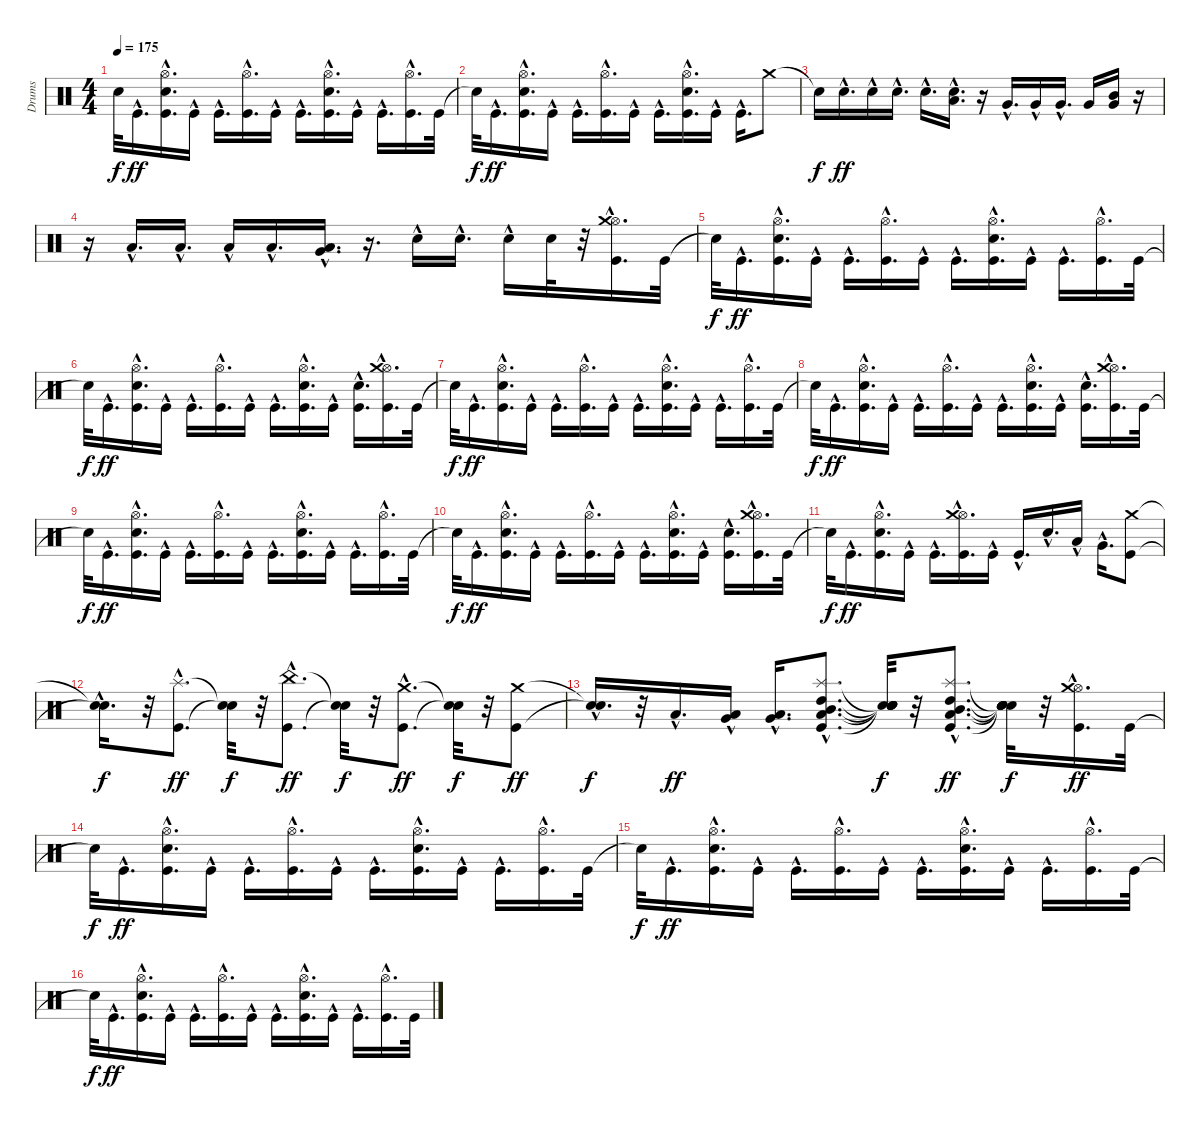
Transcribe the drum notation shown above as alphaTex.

\track ("Drums" "Drums") {instrument percussion}
\staff {score}
\articulation defaults
\ts (4 4)
\tempo 175
\clef neutral
\ks c "Snare (hit)"{t}.32{dy f} "Kick (hit)"{hac}.16{d dy ff}
("Kick (hit)"{hac} "Electric Snare (hit)"{hac} "Hi-Hat (open)"{hac}).16{d} "Kick (hit)"{hac}.16 "Kick (hit)"{hac}.16{d} ("Kick (hit)"{hac} "Hi-Hat (open)"{hac}).16{d} "Kick (hit)"{hac}.16 "Kick (hit)"{hac}.16{d} ("Kick (hit)"{hac} "Electric Snare (hit)"{hac} "Hi-Hat (open)"{hac}).16{d} "Kick (hit)"{hac}.16 "Kick (hit)"{hac}.16{d} ("Kick (hit)"{hac} "Hi-Hat (open)"{hac}).16{d} "Kick (hit)".32 |
"Snare (hit)"{t}.32{dy f} "Kick (hit)"{hac}.16{d dy ff} ("Kick (hit)"{hac} "Electric Snare (hit)"{hac} "Hi-Hat (open)"{hac}).16{d} "Kick (hit)"{hac}.16 "Kick (hit)"{hac}.16{d} ("Kick (hit)"{hac} "Hi-Hat (open)"{hac}).16{d} "Kick (hit)"{hac}.16 "Kick (hit)"{hac}.16{d} ("Kick (hit)"{hac} "Electric Snare (hit)"{hac} "Hi-Hat (open)"{hac}).16{d} "Kick (hit)"{hac}.16 "Kick (hit)"{hac}.16{d} "Crash medium (hit)".8 |
"Snare (hit)"{t}.16{dy f} "Electric Snare (hit)"{hac}.16{d dy ff} "Electric Snare (hit)"{hac}.16 "Electric Snare (hit)"{hac}.16{d} "Electric Snare (hit)"{hac}.16{d} ("Electric Snare (hit)"{hac} "Low Tom (hit)"{hac}).16{d} r.16 "Very Low Tom (hit)"{hac}.16{d} "Very Low Tom (hit)"{hac}.16 "Very Low Tom (hit)"{hac}.16{d} "Very Low Tom (hit)".16 ("Very Low Tom (hit)" "Mid Tom (hit)").16 r.16 |
r.16 "Low Floor Tom (hit)"{hac}.16{d} "Low Floor Tom (hit)"{hac}.16{d} "Low Floor Tom (hit)"{hac}.16 "Low Floor Tom (hit)"{hac}.16{d} ("Low Floor Tom (hit)"{hac} "Very Low Tom (hit)"{hac}).16{d} r.16{d} "Electric Snare (hit)"{hac}.16 "Electric Snare (hit)"{hac}.16{d} "Electric Snare (hit)"{hac}.16 "Electric Snare (hit)".32 r.32 ("Kick (hit)"{hac} "Hi-Hat (open)"{hac} "Crash medium (hit)"{hac}).16{d} "Kick (hit)".32 |
"Snare (hit)"{t}.32{dy f} "Kick (hit)"{hac}.16{d dy ff} ("Kick (hit)"{hac} "Electric Snare (hit)"{hac} "Hi-Hat (open)"{hac}).16{d} "Kick (hit)"{hac}.16 "Kick (hit)"{hac}.16{d} ("Kick (hit)"{hac} "Hi-Hat (open)"{hac}).16{d} "Kick (hit)"{hac}.16 "Kick (hit)"{hac}.16{d} ("Kick (hit)"{hac} "Electric Snare (hit)"{hac} "Hi-Hat (open)"{hac}).16{d} "Kick (hit)"{hac}.16 "Kick (hit)"{hac}.16{d} ("Kick (hit)"{hac} "Hi-Hat (open)"{hac}).16{d} "Kick (hit)".32 |
"Snare (hit)"{t}.32{dy f} "Kick (hit)"{hac}.16{d dy ff} ("Kick (hit)"{hac} "Electric Snare (hit)"{hac} "Hi-Hat (open)"{hac}).16{d} "Kick (hit)"{hac}.16 "Kick (hit)"{hac}.16{d} ("Kick (hit)"{hac} "Hi-Hat (open)"{hac}).16{d} "Kick (hit)"{hac}.16 "Kick (hit)"{hac}.16{d} ("Kick (hit)"{hac} "Electric Snare (hit)"{hac} "Hi-Hat (open)"{hac}).16{d} "Kick (hit)"{hac}.16 ("Kick (hit)"{hac} "Electric Snare (hit)"{hac}).16{d} ("Kick (hit)"{hac} "Hi-Hat (open)"{hac} "Crash medium (hit)"{hac}).16{d} "Kick (hit)".32 |
"Snare (hit)"{t}.32{dy f} "Kick (hit)"{hac}.16{d dy ff} ("Kick (hit)"{hac} "Electric Snare (hit)"{hac} "Hi-Hat (open)"{hac}).16{d} "Kick (hit)"{hac}.16 "Kick (hit)"{hac}.16{d} ("Kick (hit)"{hac} "Hi-Hat (open)"{hac}).16{d} "Kick (hit)"{hac}.16 "Kick (hit)"{hac}.16{d} ("Kick (hit)"{hac} "Electric Snare (hit)"{hac} "Hi-Hat (open)"{hac}).16{d} "Kick (hit)"{hac}.16 "Kick (hit)"{hac}.16{d} ("Kick (hit)"{hac} "Hi-Hat (open)"{hac}).16{d} "Kick (hit)".32 |
"Snare (hit)"{t}.32{dy f} "Kick (hit)"{hac}.16{d dy ff} ("Kick (hit)"{hac} "Electric Snare (hit)"{hac} "Hi-Hat (open)"{hac}).16{d} "Kick (hit)"{hac}.16 "Kick (hit)"{hac}.16{d} ("Kick (hit)"{hac} "Hi-Hat (open)"{hac}).16{d} "Kick (hit)"{hac}.16 "Kick (hit)"{hac}.16{d} ("Kick (hit)"{hac} "Electric Snare (hit)"{hac} "Hi-Hat (open)"{hac}).16{d} "Kick (hit)"{hac}.16 ("Kick (hit)"{hac} "Electric Snare (hit)"{hac}).16{d} ("Kick (hit)"{hac} "Hi-Hat (open)"{hac} "Crash medium (hit)"{hac}).16{d} "Kick (hit)".32 |
"Snare (hit)"{t}.32{dy f} "Kick (hit)"{hac}.16{d dy ff} ("Kick (hit)"{hac} "Electric Snare (hit)"{hac} "Hi-Hat (open)"{hac}).16{d} "Kick (hit)"{hac}.16 "Kick (hit)"{hac}.16{d} ("Kick (hit)"{hac} "Hi-Hat (open)"{hac}).16{d} "Kick (hit)"{hac}.16 "Kick (hit)"{hac}.16{d} ("Kick (hit)"{hac} "Electric Snare (hit)"{hac} "Hi-Hat (open)"{hac}).16{d} "Kick (hit)"{hac}.16 "Kick (hit)"{hac}.16{d} ("Kick (hit)"{hac} "Hi-Hat (open)"{hac}).16{d} "Kick (hit)".32 |
"Snare (hit)"{t}.32{dy f} "Kick (hit)"{hac}.16{d dy ff} ("Kick (hit)"{hac} "Electric Snare (hit)"{hac} "Hi-Hat (open)"{hac}).16{d} "Kick (hit)"{hac}.16 "Kick (hit)"{hac}.16{d} ("Kick (hit)"{hac} "Hi-Hat (open)"{hac}).16{d} "Kick (hit)"{hac}.16 "Kick (hit)"{hac}.16{d} ("Kick (hit)"{hac} "Electric Snare (hit)"{hac} "Hi-Hat (open)"{hac}).16{d} "Kick (hit)"{hac}.16 ("Kick (hit)"{hac} "Electric Snare (hit)"{hac}).16{d} ("Kick (hit)"{hac} "Hi-Hat (open)"{hac} "Crash medium (hit)"{hac}).16{d} "Kick (hit)".32 |
"Snare (hit)"{t}.32{dy f} "Kick (hit)"{hac}.16{d dy ff} ("Kick (hit)"{hac} "Electric Snare (hit)"{hac} "Hi-Hat (open)"{hac}).16{d} "Kick (hit)"{hac}.16 "Kick (hit)"{hac}.16{d} ("Kick (hit)"{hac} "Hi-Hat (open)"{hac} "Crash medium (hit)"{hac}).16{d} "Kick (hit)"{hac}.16 "Kick (hit)"{hac}.16{d} "Electric Snare (hit)"{hac}.16{d} "Low Tom (hit)"{hac}.16 "Very Low Tom (hit)"{hac}.16{d} ("Kick (hit)" "Crash medium (hit)").8 |
("Snare (hit)"{hac t} "Snare (hit)"{hac t}).16{d dy f} r.32 ("Kick (hit)"{hac} "Splash (hit)"{hac}).8{d dy ff} ("Snare (hit)"{t} "Snare (hit)"{t}).32{dy f} r.32 ("Kick (hit)"{hac} "China (hit)"{hac}).8{d dy ff} ("Snare (hit)"{t} "Snare (hit)"{t}).32{dy f} r.32 ("Kick (hit)"{hac} "Crash medium (hit)"{hac}).8{d dy ff} ("Snare (hit)"{t} "Snare (hit)"{t}).32{dy f} r.32 ("Kick (hit)" "Crash medium (hit)").8{dy ff} |
("Snare (hit)"{hac t} "Snare (hit)"{hac t}).16{d dy f} r.32 "Low Tom (hit)"{hac}.16{d dy ff} ("Very Low Tom (hit)"{hac} "Low Tom (hit)"{hac}).16 ("Very Low Tom (hit)"{hac} "Low Tom (hit)"{hac}).16{d} ("Kick (hit)"{hac} "Low Tom (hit)"{hac} "Mid Tom (hit)"{hac} "High Tom (hit)"{hac} "Splash (hit)"{hac}).8{d} ("Snare (hit)"{t} "Snare (hit)"{t} "Snare (hit)"{t} "Snare (hit)"{t} "Snare (hit)"{t}).32{dy f} r.32 ("Kick (hit)"{hac} "Low Tom (hit)"{hac} "Mid Tom (hit)"{hac} "High Tom (hit)"{hac} "Splash (hit)"{hac}).8{d dy ff} ("Snare (hit)"{t} "Snare (hit)"{t} "Snare (hit)"{t} "Snare (hit)"{t} "Snare (hit)"{t}).32{dy f} r.32 ("Kick (hit)"{hac} "Hi-Hat (open)"{hac} "Crash medium (hit)"{hac}).16{d dy ff} "Kick (hit)".32 |
"Snare (hit)"{t}.32{dy f} "Kick (hit)"{hac}.16{d dy ff} ("Kick (hit)"{hac} "Electric Snare (hit)"{hac} "Hi-Hat (open)"{hac}).16{d} "Kick (hit)"{hac}.16 "Kick (hit)"{hac}.16{d} ("Kick (hit)"{hac} "Hi-Hat (open)"{hac}).16{d} "Kick (hit)"{hac}.16 "Kick (hit)"{hac}.16{d} ("Kick (hit)"{hac} "Electric Snare (hit)"{hac} "Hi-Hat (open)"{hac}).16{d} "Kick (hit)"{hac}.16 "Kick (hit)"{hac}.16{d} ("Kick (hit)"{hac} "Hi-Hat (open)"{hac}).16{d} "Kick (hit)".32 |
"Snare (hit)"{t}.32{dy f} "Kick (hit)"{hac}.16{d dy ff} ("Kick (hit)"{hac} "Electric Snare (hit)"{hac} "Hi-Hat (open)"{hac}).16{d} "Kick (hit)"{hac}.16 "Kick (hit)"{hac}.16{d} ("Kick (hit)"{hac} "Hi-Hat (open)"{hac}).16{d} "Kick (hit)"{hac}.16 "Kick (hit)"{hac}.16{d} ("Kick (hit)"{hac} "Electric Snare (hit)"{hac} "Hi-Hat (open)"{hac}).16{d} "Kick (hit)"{hac}.16 "Kick (hit)"{hac}.16{d} ("Kick (hit)"{hac} "Hi-Hat (open)"{hac}).16{d} "Kick (hit)".32 |
"Snare (hit)"{t}.32{dy f} "Kick (hit)"{hac}.16{d dy ff} ("Kick (hit)"{hac} "Electric Snare (hit)"{hac} "Hi-Hat (open)"{hac}).16{d} "Kick (hit)"{hac}.16 "Kick (hit)"{hac}.16{d} ("Kick (hit)"{hac} "Hi-Hat (open)"{hac}).16{d} "Kick (hit)"{hac}.16 "Kick (hit)"{hac}.16{d} ("Kick (hit)"{hac} "Electric Snare (hit)"{hac} "Hi-Hat (open)"{hac}).16{d} "Kick (hit)"{hac}.16 "Kick (hit)"{hac}.16{d} ("Kick (hit)"{hac} "Hi-Hat (open)"{hac}).16{d} "Kick (hit)".32
